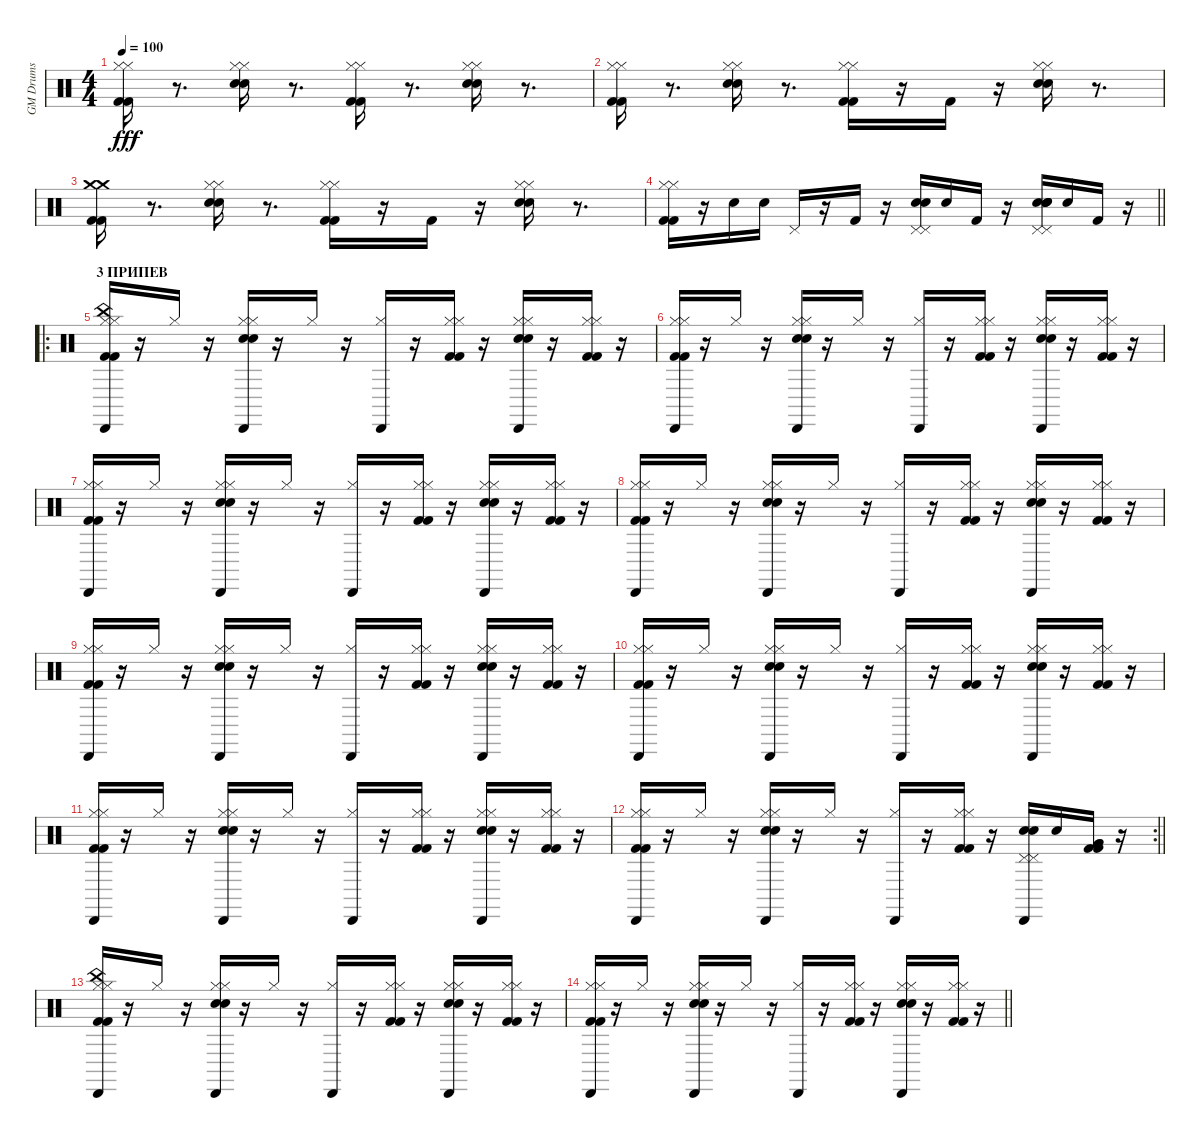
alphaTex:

\track ("GM Drums" "GM Drums") {instrument percussion}
\staff {score}
\articulation defaults
\ts (4 4)
\tempo 100
\clef neutral
\ks c
("Kick (hit) 2" "Kick (hit) 2" "Hi-Hat (closed)" "Hi-Hat (closed)").16{dy fff} r.8{d} ("Snare (hit) 2" "Snare (hit) 2" "Hi-Hat (closed)" "Hi-Hat (closed)").16 r.8{d} ("Kick (hit) 2" "Kick (hit) 2" "Hi-Hat (closed)" "Hi-Hat (closed)").16 r.8{d} ("Snare (hit) 2" "Snare (hit) 2" "Hi-Hat (closed)" "Hi-Hat (closed)").16 r.8{d} |
("Kick (hit) 2" "Kick (hit) 2" "Hi-Hat (closed)" "Hi-Hat (closed)").16 r.8{d} ("Snare (hit) 2" "Snare (hit) 2" "Hi-Hat (closed)" "Hi-Hat (closed)").16 r.8{d} ("Kick (hit) 2" "Kick (hit) 2" "Hi-Hat (closed)" "Hi-Hat (closed)").16 r.16 "Kick (hit) 2".16 r.16 ("Snare (hit) 2" "Snare (hit) 2" "Hi-Hat (closed)" "Hi-Hat (closed)").16 r.8{d} |
("Kick (hit) 2" "Kick (hit) 2" "Crash medium (hit)" "Crash medium (hit)").16 r.8{d} ("Snare (hit) 2" "Snare (hit) 2" "Hi-Hat (closed)" "Hi-Hat (closed)").16 r.8{d} ("Kick (hit) 2" "Kick (hit) 2" "Hi-Hat (closed)" "Hi-Hat (closed)").16 r.16 "Kick (hit) 2".16 r.16 ("Snare (hit) 2" "Snare (hit) 2" "Hi-Hat (closed)" "Hi-Hat (closed)").16 r.8{d} |
\barLineRight lightlight
("Kick (hit) 2" "Kick (hit) 2" "Hi-Hat (closed)" "Hi-Hat (closed)").16 r.16 "Snare (hit) 2".16 "Snare (hit) 2".16 "Pedal Hi-Hat (hit)".16 r.16 "Kick (hit) 2".16 r.16 ("Snare (hit) 2" "Snare (hit) 2" "Pedal Hi-Hat (hit)" "Pedal Hi-Hat (hit)").16 "Snare (hit) 2".16 "Kick (hit) 2".16 r.16 ("Metronome (bell)" "Metronome (bell)" "Snare (hit) 2" "Snare (hit) 2" "Pedal Hi-Hat (hit)" "Pedal Hi-Hat (hit)").16 "Snare (hit) 2".16 "Kick (hit) 2".16 r.16 |
\ro
\section ("" "3 ПРИПЕВ")
("Kick (hit) 2" "Kick (hit) 2" "Hi-Hat (closed)" "Hi-Hat (closed)" "China (hit)" "Cabasa (hit)").16 r.16 "Hi-Hat (closed)".16 r.16 ("Snare (hit) 2" "Snare (hit) 2" "Hi-Hat (closed)" "Hi-Hat (closed)" "Cabasa (hit)").16 r.16 "Hi-Hat (closed)".16 r.16 ("Hi-Hat (closed)" "Cabasa (hit)").16 r.16 ("Kick (hit) 2" "Kick (hit) 2" "Hi-Hat (closed)" "Hi-Hat (closed)").16 r.16 ("Snare (hit) 2" "Snare (hit) 2" "Hi-Hat (closed)" "Hi-Hat (closed)" "Cabasa (hit)").16 r.16 ("Kick (hit) 2" "Kick (hit) 2" "Hi-Hat (closed)" "Hi-Hat (closed)").16 r.16 |
("Kick (hit) 2" "Kick (hit) 2" "Hi-Hat (closed)" "Hi-Hat (closed)" "Cabasa (hit)").16 r.16 "Hi-Hat (closed)".16 r.16 ("Snare (hit) 2" "Snare (hit) 2" "Hi-Hat (closed)" "Hi-Hat (closed)" "Cabasa (hit)").16 r.16 "Hi-Hat (closed)".16 r.16 ("Hi-Hat (closed)" "Cabasa (hit)").16 r.16 ("Kick (hit) 2" "Kick (hit) 2" "Hi-Hat (closed)" "Hi-Hat (closed)").16 r.16 ("Snare (hit) 2" "Snare (hit) 2" "Hi-Hat (closed)" "Hi-Hat (closed)" "Cabasa (hit)").16 r.16 ("Kick (hit) 2" "Kick (hit) 2" "Hi-Hat (closed)" "Hi-Hat (closed)").16 r.16 |
("Kick (hit) 2" "Kick (hit) 2" "Hi-Hat (closed)" "Hi-Hat (closed)" "Cabasa (hit)").16 r.16 "Hi-Hat (closed)".16 r.16 ("Snare (hit) 2" "Snare (hit) 2" "Hi-Hat (closed)" "Hi-Hat (closed)" "Cabasa (hit)").16 r.16 "Hi-Hat (closed)".16 r.16 ("Hi-Hat (closed)" "Cabasa (hit)").16 r.16 ("Kick (hit) 2" "Kick (hit) 2" "Hi-Hat (closed)" "Hi-Hat (closed)").16 r.16 ("Snare (hit) 2" "Snare (hit) 2" "Hi-Hat (closed)" "Hi-Hat (closed)" "Cabasa (hit)").16 r.16 ("Kick (hit) 2" "Kick (hit) 2" "Hi-Hat (closed)" "Hi-Hat (closed)").16 r.16 |
("Kick (hit) 2" "Kick (hit) 2" "Hi-Hat (closed)" "Hi-Hat (closed)" "Cabasa (hit)").16 r.16 "Hi-Hat (closed)".16 r.16 ("Snare (hit) 2" "Snare (hit) 2" "Hi-Hat (closed)" "Hi-Hat (closed)" "Cabasa (hit)").16 r.16 "Hi-Hat (closed)".16 r.16 ("Hi-Hat (closed)" "Cabasa (hit)").16 r.16 ("Kick (hit) 2" "Kick (hit) 2" "Hi-Hat (closed)" "Hi-Hat (closed)").16 r.16 ("Snare (hit) 2" "Snare (hit) 2" "Hi-Hat (closed)" "Hi-Hat (closed)" "Cabasa (hit)").16 r.16 ("Kick (hit) 2" "Kick (hit) 2" "Hi-Hat (closed)" "Hi-Hat (closed)").16 r.16 |
("Kick (hit) 2" "Kick (hit) 2" "Hi-Hat (closed)" "Hi-Hat (closed)" "Cabasa (hit)").16 r.16 "Hi-Hat (closed)".16 r.16 ("Snare (hit) 2" "Snare (hit) 2" "Hi-Hat (closed)" "Hi-Hat (closed)" "Cabasa (hit)").16 r.16 "Hi-Hat (closed)".16 r.16 ("Hi-Hat (closed)" "Cabasa (hit)").16 r.16 ("Kick (hit) 2" "Kick (hit) 2" "Hi-Hat (closed)" "Hi-Hat (closed)").16 r.16 ("Snare (hit) 2" "Snare (hit) 2" "Hi-Hat (closed)" "Hi-Hat (closed)" "Cabasa (hit)").16 r.16 ("Kick (hit) 2" "Kick (hit) 2" "Hi-Hat (closed)" "Hi-Hat (closed)").16 r.16 |
("Kick (hit) 2" "Kick (hit) 2" "Hi-Hat (closed)" "Hi-Hat (closed)" "Cabasa (hit)").16 r.16 "Hi-Hat (closed)".16 r.16 ("Snare (hit) 2" "Snare (hit) 2" "Hi-Hat (closed)" "Hi-Hat (closed)" "Cabasa (hit)").16 r.16 "Hi-Hat (closed)".16 r.16 ("Hi-Hat (closed)" "Cabasa (hit)").16 r.16 ("Kick (hit) 2" "Kick (hit) 2" "Hi-Hat (closed)" "Hi-Hat (closed)").16 r.16 ("Snare (hit) 2" "Snare (hit) 2" "Hi-Hat (closed)" "Hi-Hat (closed)" "Cabasa (hit)").16 r.16 ("Kick (hit) 2" "Kick (hit) 2" "Hi-Hat (closed)" "Hi-Hat (closed)").16 r.16 |
("Kick (hit) 2" "Kick (hit) 2" "Hi-Hat (closed)" "Hi-Hat (closed)" "Cabasa (hit)").16 r.16 "Hi-Hat (closed)".16 r.16 ("Snare (hit) 2" "Snare (hit) 2" "Hi-Hat (closed)" "Hi-Hat (closed)" "Cabasa (hit)").16 r.16 "Hi-Hat (closed)".16 r.16 ("Hi-Hat (closed)" "Cabasa (hit)").16 r.16 ("Kick (hit) 2" "Kick (hit) 2" "Hi-Hat (closed)" "Hi-Hat (closed)").16 r.16 ("Snare (hit) 2" "Snare (hit) 2" "Hi-Hat (closed)" "Hi-Hat (closed)" "Cabasa (hit)").16 r.16 ("Kick (hit) 2" "Kick (hit) 2" "Hi-Hat (closed)" "Hi-Hat (closed)").16 r.16 |
\rc 2
\barLineRight lightlight
("Kick (hit) 2" "Kick (hit) 2" "Hi-Hat (closed)" "Hi-Hat (closed)" "Cabasa (hit)").16 r.16 "Hi-Hat (closed)".16 r.16 ("Snare (hit) 2" "Snare (hit) 2" "Hi-Hat (closed)" "Hi-Hat (closed)" "Cabasa (hit)").16 r.16 "Hi-Hat (closed)".16 r.16 ("Hi-Hat (closed)" "Cabasa (hit)").16 r.16 ("Kick (hit) 2" "Kick (hit) 2" "Hi-Hat (closed)" "Hi-Hat (closed)").16 r.16 ("Snare (hit) 2" "Snare (hit) 2" "Pedal Hi-Hat (hit)" "Pedal Hi-Hat (hit)" "Cabasa (hit)").16 "Snare (hit) 2".16 ("Kick (hit) 2" "Kick (hit) 2" "Very Low Tom (hit)" "Very Low Tom (hit)").16 r.16 |
("Kick (hit) 2" "Kick (hit) 2" "Hi-Hat (closed)" "Hi-Hat (closed)" "China (hit)" "Cabasa (hit)").16 r.16 "Hi-Hat (closed)".16 r.16 ("Snare (hit) 2" "Snare (hit) 2" "Hi-Hat (closed)" "Hi-Hat (closed)" "Cabasa (hit)").16 r.16 "Hi-Hat (closed)".16 r.16 ("Hi-Hat (closed)" "Cabasa (hit)").16 r.16 ("Kick (hit) 2" "Kick (hit) 2" "Hi-Hat (closed)" "Hi-Hat (closed)").16 r.16 ("Snare (hit) 2" "Snare (hit) 2" "Hi-Hat (closed)" "Hi-Hat (closed)" "Cabasa (hit)").16 r.16 ("Kick (hit) 2" "Kick (hit) 2" "Hi-Hat (closed)" "Hi-Hat (closed)").16 r.16 |
\barLineRight lightlight
("Kick (hit) 2" "Kick (hit) 2" "Hi-Hat (closed)" "Hi-Hat (closed)" "Cabasa (hit)").16 r.16 "Hi-Hat (closed)".16 r.16 ("Snare (hit) 2" "Snare (hit) 2" "Hi-Hat (closed)" "Hi-Hat (closed)" "Cabasa (hit)").16 r.16 "Hi-Hat (closed)".16 r.16 ("Hi-Hat (closed)" "Cabasa (hit)").16 r.16 ("Kick (hit) 2" "Kick (hit) 2" "Hi-Hat (closed)" "Hi-Hat (closed)").16 r.16 ("Snare (hit) 2" "Snare (hit) 2" "Hi-Hat (closed)" "Hi-Hat (closed)" "Cabasa (hit)").16 r.16 ("Kick (hit) 2" "Kick (hit) 2" "Hi-Hat (closed)" "Hi-Hat (closed)").16 r.16
